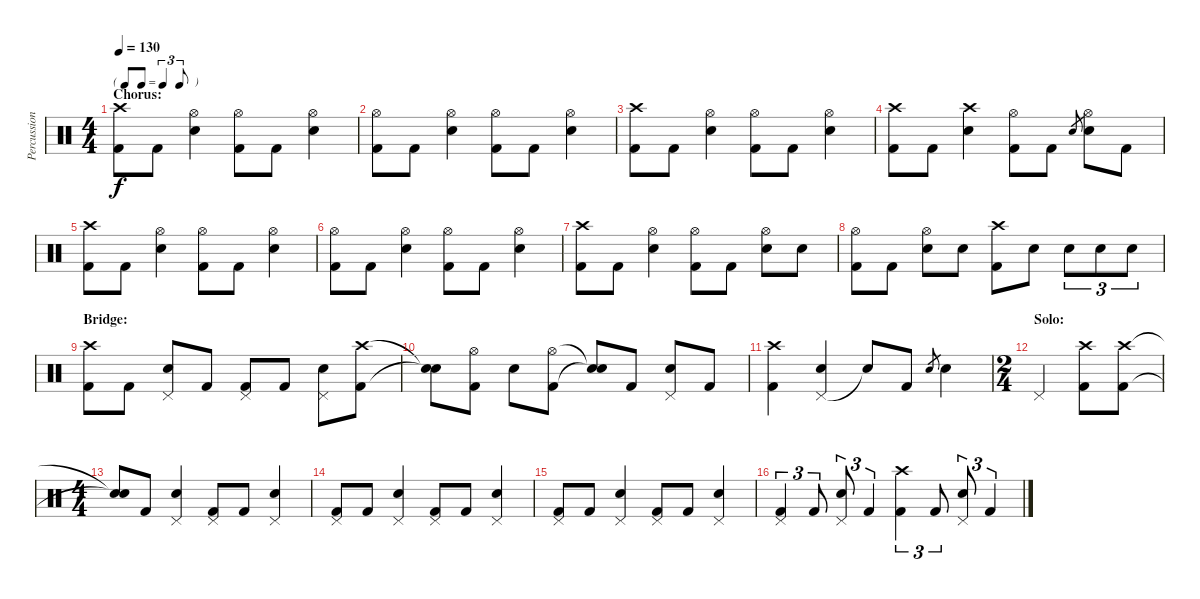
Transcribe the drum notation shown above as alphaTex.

\track ("Percussion" "Percussion") {instrument percussion}
\staff {score}
\articulation defaults
\ts (4 4)
\tf triplet8th
\section ("" "Chorus:")
\tempo 130
\clef neutral
\ks c
("Crash high (hit)" "Kick (hit) 2").8{dy f} "Kick (hit) 2".8 ("Hi-Hat (open)" "Electric Snare (hit)").4 ("Hi-Hat (open)" "Kick (hit) 2").8 "Kick (hit) 2".8 ("Hi-Hat (open)" "Electric Snare (hit)").4 |
("Hi-Hat (open)" "Kick (hit) 2").8 "Kick (hit) 2".8 ("Hi-Hat (open)" "Electric Snare (hit)").4 ("Hi-Hat (open)" "Kick (hit) 2").8 "Kick (hit) 2".8 ("Hi-Hat (open)" "Electric Snare (hit)").4 |
("Crash high (hit)" "Kick (hit) 2").8 "Kick (hit) 2".8 ("Hi-Hat (open)" "Electric Snare (hit)").4 ("Hi-Hat (open)" "Kick (hit) 2").8 "Kick (hit) 2".8 ("Hi-Hat (open)" "Electric Snare (hit)").4 |
("Crash high (hit)" "Kick (hit) 2").8 "Kick (hit) 2".8 ("Crash high (hit)" "Electric Snare (hit)").4 ("Hi-Hat (open)" "Kick (hit) 2").8 "Kick (hit) 2".8 "Electric Snare (hit)".8{gr} ("Hi-Hat (open)" "Electric Snare (hit)").8 "Kick (hit) 2".8 |
("Crash high (hit)" "Kick (hit) 2").8 "Kick (hit) 2".8 ("Hi-Hat (open)" "Electric Snare (hit)").4 ("Hi-Hat (open)" "Kick (hit) 2").8 "Kick (hit) 2".8 ("Hi-Hat (open)" "Electric Snare (hit)").4 |
("Hi-Hat (open)" "Kick (hit) 2").8 "Kick (hit) 2".8 ("Hi-Hat (open)" "Electric Snare (hit)").4 ("Hi-Hat (open)" "Kick (hit) 2").8 "Kick (hit) 2".8 ("Hi-Hat (open)" "Electric Snare (hit)").4 |
("Crash high (hit)" "Kick (hit) 2").8 "Kick (hit) 2".8 ("Hi-Hat (open)" "Electric Snare (hit)").4 ("Hi-Hat (open)" "Kick (hit) 2").8 "Kick (hit) 2".8 ("Hi-Hat (open)" "Electric Snare (hit)").8 "Electric Snare (hit)".8 |
("Hi-Hat (open)" "Kick (hit) 2").8 "Kick (hit) 2".8 ("Hi-Hat (open)" "Electric Snare (hit)").8 "Electric Snare (hit)".8 ("Crash high (hit)" "Kick (hit) 2").8 "Electric Snare (hit)".8 "Electric Snare (hit)".8{tu (3 2)} "Electric Snare (hit)".8{tu (3 2)} "Electric Snare (hit)".8{tu (3 2)} |
\section ("" "Bridge:")
("Crash high (hit)" "Kick (hit) 2").8 "Kick (hit) 2".8 ("Pedal Hi-Hat (hit)" "Electric Snare (hit)").8 "Kick (hit) 2".8 ("Pedal Hi-Hat (hit)" "Kick (hit) 2").8 "Kick (hit) 2".8 ("Pedal Hi-Hat (hit)" "Electric Snare (hit)").8 ("Crash high (hit)" "Kick (hit) 2").8 |
("Snare (hit)"{t} "Snare (hit)"{t}).8 ("Hi-Hat (open)" "Kick (hit) 2").8 "Electric Snare (hit)".8 ("Hi-Hat (open)" "Kick (hit) 2").8 ("Snare (hit)"{t} "Snare (hit)"{t}).8 "Kick (hit) 2".8 ("Pedal Hi-Hat (hit)" "Electric Snare (hit)").8 "Kick (hit) 2".8 |
("Crash high (hit)" "Kick (hit) 2").4 ("Pedal Hi-Hat (hit)" "Electric Snare (hit)").4 "Snare (hit)"{t}.8 "Kick (hit) 2".8 "Electric Snare (hit)".8{gr} "Electric Snare (hit)".4 |
\ts (2 4)
\section ("" "Solo:")
"Pedal Hi-Hat (hit)".4 ("Crash high (hit)" "Kick (hit) 2").8 ("Crash high (hit)" "Kick (hit) 2").8 |
\ts (4 4)
("Snare (hit)"{t} "Snare (hit)"{t}).8 "Kick (hit) 2".8 ("Pedal Hi-Hat (hit)" "Electric Snare (hit)").4 ("Pedal Hi-Hat (hit)" "Kick (hit) 2").8 "Kick (hit) 2".8 ("Pedal Hi-Hat (hit)" "Electric Snare (hit)").4 |
("Pedal Hi-Hat (hit)" "Kick (hit) 2").8 "Kick (hit) 2".8 ("Pedal Hi-Hat (hit)" "Electric Snare (hit)").4 ("Pedal Hi-Hat (hit)" "Kick (hit) 2").8 "Kick (hit) 2".8 ("Pedal Hi-Hat (hit)" "Electric Snare (hit)").4 |
("Pedal Hi-Hat (hit)" "Kick (hit) 2").8 "Kick (hit) 2".8 ("Pedal Hi-Hat (hit)" "Electric Snare (hit)").4 ("Pedal Hi-Hat (hit)" "Kick (hit) 2").8 "Kick (hit) 2".8 ("Pedal Hi-Hat (hit)" "Electric Snare (hit)").4 |
("Pedal Hi-Hat (hit)" "Kick (hit) 2").4{tu (3 2)} "Kick (hit) 2".8{tu (3 2)} ("Pedal Hi-Hat (hit)" "Electric Snare (hit)").8{tu (3 2)} "Kick (hit) 2".4{tu (3 2)} ("Crash high (hit)" "Kick (hit) 2").4{tu (3 2)} "Kick (hit) 2".8{tu (3 2)} ("Pedal Hi-Hat (hit)" "Electric Snare (hit)").8{tu (3 2)} "Kick (hit) 2".4{tu (3 2)}
